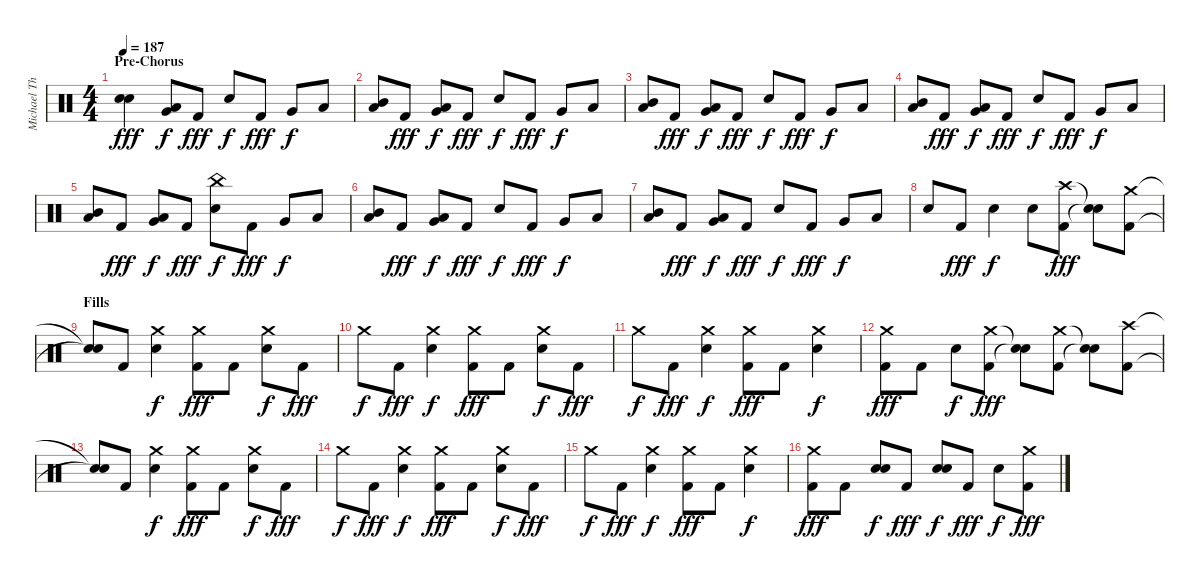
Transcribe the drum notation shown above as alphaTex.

\track ("Michael Thomas" "Michael Th") {instrument percussion}
\staff {score}
\articulation defaults
\ts (4 4)
\section ("" "Pre-Chorus")
\tempo 187
\clef neutral
\ks c
("Snare (hit)"{t} "Snare (hit)"{t}).4{dy fff} ("Low Tom (hit)" "Very Low Tom (hit)").8{dy f} "Kick (hit) 2".8{dy fff} "Electric Snare (hit)".8{dy f} "Kick (hit) 2".8{dy fff} "Very Low Tom (hit)".8{dy f} "Low Floor Tom (hit)".8 |
("Mid Tom (hit)" "Low Tom (hit)").8 "Kick (hit) 2".8{dy fff} ("Low Tom (hit)" "Very Low Tom (hit)").8{dy f} "Kick (hit) 2".8{dy fff} "Electric Snare (hit)".8{dy f} "Kick (hit) 2".8{dy fff} "Very Low Tom (hit)".8{dy f} "Low Floor Tom (hit)".8 |
("Mid Tom (hit)" "Low Tom (hit)").8 "Kick (hit) 2".8{dy fff} ("Low Tom (hit)" "Very Low Tom (hit)").8{dy f} "Kick (hit) 2".8{dy fff} "Electric Snare (hit)".8{dy f} "Kick (hit) 2".8{dy fff} "Very Low Tom (hit)".8{dy f} "Low Floor Tom (hit)".8 |
("Mid Tom (hit)" "Low Tom (hit)").8 "Kick (hit) 2".8{dy fff} ("Low Tom (hit)" "Very Low Tom (hit)").8{dy f} "Kick (hit) 2".8{dy fff} "Electric Snare (hit)".8{dy f} "Kick (hit) 2".8{dy fff} "Very Low Tom (hit)".8{dy f} "Low Floor Tom (hit)".8 |
("Mid Tom (hit)" "Low Tom (hit)").8 "Kick (hit) 2".8{dy fff} ("Low Tom (hit)" "Very Low Tom (hit)").8{dy f} "Kick (hit) 2".8{dy fff} ("China (hit)" "Electric Snare (hit)").8{dy f} "Kick (hit) 2".8{dy fff} "Very Low Tom (hit)".8{dy f} "Low Floor Tom (hit)".8 |
("Mid Tom (hit)" "Low Tom (hit)").8 "Kick (hit) 2".8{dy fff} ("Low Tom (hit)" "Very Low Tom (hit)").8{dy f} "Kick (hit) 2".8{dy fff} "Electric Snare (hit)".8{dy f} "Kick (hit) 2".8{dy fff} "Very Low Tom (hit)".8{dy f} "Low Floor Tom (hit)".8 |
("Mid Tom (hit)" "Low Tom (hit)").8 "Kick (hit) 2".8{dy fff} ("Low Tom (hit)" "Very Low Tom (hit)").8{dy f} "Kick (hit) 2".8{dy fff} "Electric Snare (hit)".8{dy f} "Kick (hit) 2".8{dy fff} "Very Low Tom (hit)".8{dy f} "Low Floor Tom (hit)".8 |
"Electric Snare (hit)".8 "Kick (hit) 2".8{dy fff} "Electric Snare (hit)".4{dy f} "Electric Snare (hit)".8 ("Crash high (hit)" "Kick (hit) 2").8{dy fff} ("Snare (hit)"{t} "Snare (hit)"{t}).8 ("Crash medium (hit)" "Kick (hit) 2").8 |
\section ("" "Fills")
("Snare (hit)"{t} "Snare (hit)"{t}).8 "Kick (hit) 2".8 ("Crash medium (hit)" "Electric Snare (hit)").4{dy f} ("Crash medium (hit)" "Kick (hit) 2").8{dy fff} "Kick (hit) 2".8 ("Crash medium (hit)" "Electric Snare (hit)").8{dy f} "Kick (hit) 2".8{dy fff} |
"Crash medium (hit)".8{dy f} "Kick (hit) 2".8{dy fff} ("Crash medium (hit)" "Electric Snare (hit)").4{dy f} ("Crash medium (hit)" "Kick (hit) 2").8{dy fff} "Kick (hit) 2".8 ("Crash medium (hit)" "Electric Snare (hit)").8{dy f} "Kick (hit) 2".8{dy fff} |
"Crash medium (hit)".8{dy f} "Kick (hit) 2".8{dy fff} ("Crash medium (hit)" "Electric Snare (hit)").4{dy f} ("Crash medium (hit)" "Kick (hit) 2").8{dy fff} "Kick (hit) 2".8 ("Crash medium (hit)" "Electric Snare (hit)").4{dy f} |
("Crash medium (hit)" "Kick (hit) 2").8{dy fff} "Kick (hit) 2".8 "Electric Snare (hit)".8{dy f} ("Crash medium (hit)" "Kick (hit) 2").8{dy fff} ("Snare (hit)"{t} "Snare (hit)"{t}).8 ("Crash medium (hit)" "Kick (hit) 2").8 ("Snare (hit)"{t} "Snare (hit)"{t}).8 ("Crash high (hit)" "Kick (hit) 2").8 |
("Snare (hit)"{t} "Snare (hit)"{t}).8 "Kick (hit) 2".8 ("Crash medium (hit)" "Electric Snare (hit)").4{dy f} ("Crash medium (hit)" "Kick (hit) 2").8{dy fff} "Kick (hit) 2".8 ("Crash medium (hit)" "Electric Snare (hit)").8{dy f} "Kick (hit) 2".8{dy fff} |
"Crash medium (hit)".8{dy f} "Kick (hit) 2".8{dy fff} ("Crash medium (hit)" "Electric Snare (hit)").4{dy f} ("Crash medium (hit)" "Kick (hit) 2").8{dy fff} "Kick (hit) 2".8 ("Crash medium (hit)" "Electric Snare (hit)").8{dy f} "Kick (hit) 2".8{dy fff} |
"Crash medium (hit)".8{dy f} "Kick (hit) 2".8{dy fff} ("Crash medium (hit)" "Electric Snare (hit)").4{dy f} ("Crash medium (hit)" "Kick (hit) 2").8{dy fff} "Kick (hit) 2".8 ("Crash medium (hit)" "Electric Snare (hit)").4{dy f} |
("Crash medium (hit)" "Kick (hit) 2").8{dy fff} "Kick (hit) 2".8 ("Electric Snare (hit)" "Electric Snare (hit)").8{bd 120 dy f} "Kick (hit) 2".8{dy fff} ("Electric Snare (hit)" "Electric Snare (hit)").8{bd 120 dy f} "Kick (hit) 2".8{dy fff} "Electric Snare (hit)".8{dy f} ("Crash medium (hit)" "Kick (hit) 2").8{dy fff}
